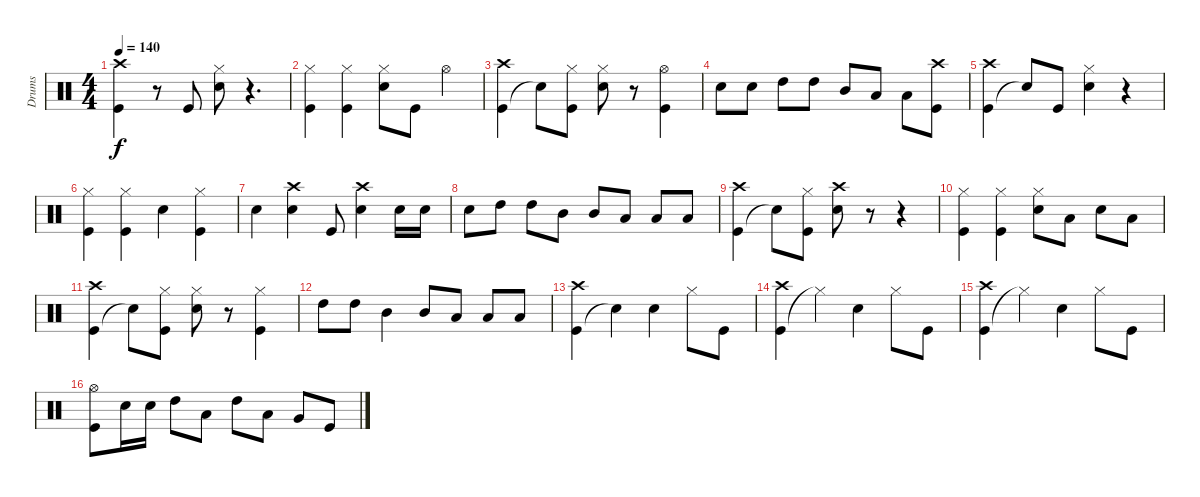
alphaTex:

\track ("Drums" "Drums") {instrument percussion}
\staff {score}
\articulation defaults
\ts (4 4)
\tempo 140
\clef neutral
\ks c
("Kick (hit)" "Crash high (hit)").4{dy f} r.8 "Kick (hit)".8 ("Snare (hit) 2" "Hi-Hat (closed)").8 r.4{d} |
("Kick (hit)" "Hi-Hat (closed)").4 ("Kick (hit)" "Hi-Hat (closed)").4 ("Snare (hit) 2" "Hi-Hat (closed)").8 "Kick (hit)".8 "Hi-Hat (open)".4 |
("Kick (hit)" "Crash high (hit)").4 "Snare (hit)"{t}.8 ("Kick (hit)" "Hi-Hat (closed)").8 ("Snare (hit) 2" "Hi-Hat (closed)").8 r.8 ("Kick (hit)" "Hi-Hat (open)").4 |
"Snare (hit) 2".8 "Snare (hit) 2".8 "High Tom (hit)".8 "High Tom (hit)".8 "Mid Tom (hit)".8 "Low Tom (hit)".8 "Low Floor Tom (hit)".8 ("Kick (hit)" "Crash high (hit)").8 |
("Kick (hit)" "Crash high (hit)").4 "Snare (hit)"{t}.8 "Kick (hit)".8 ("Snare (hit) 2" "Hi-Hat (closed)").4 r.4 |
("Kick (hit)" "Hi-Hat (closed)").4 ("Kick (hit)" "Hi-Hat (closed)").4 "Snare (hit) 2".4 ("Kick (hit)" "Hi-Hat (closed)").4 |
"Snare (hit) 2".4 ("Snare (hit) 2" "Crash high (hit)").4 "Kick (hit)".8 ("Snare (hit) 2" "Crash high (hit)").4 "Snare (hit) 2".16 "Snare (hit) 2".16 |
"Snare (hit) 2".8 "High Tom (hit)".8 "High Tom (hit)".8 "Mid Tom (hit)".8 "Mid Tom (hit)".8 "Low Tom (hit)".8 "Low Tom (hit)".8 "Low Floor Tom (hit)".8 |
("Kick (hit)" "Crash high (hit)").4 "Snare (hit)"{t}.8 ("Kick (hit)" "Hi-Hat (closed)").8 ("Snare (hit) 2" "Crash high (hit)").8 r.8 r.4 |
("Kick (hit)" "Hi-Hat (closed)").4 ("Kick (hit)" "Hi-Hat (closed)").4 ("Snare (hit) 2" "Hi-Hat (closed)").8 "Low Floor Tom (hit)".8 "Snare (hit) 2".8 "Low Floor Tom (hit)".8 |
("Kick (hit)" "Crash high (hit)").4 "Snare (hit)"{t}.8 ("Kick (hit)" "Hi-Hat (closed)").8 ("Snare (hit) 2" "Hi-Hat (closed)").8 r.8 ("Kick (hit)" "Hi-Hat (closed)").4 |
"High Tom (hit)".8 "High Tom (hit)".8 "Mid Tom (hit)".4 "Mid Tom (hit)".8 "Low Tom (hit)".8 "Low Tom (hit)".8 "Low Floor Tom (hit)".8 |
("Kick (hit)" "Crash high (hit)").4 "Snare (hit) 2"{t}.4 "Snare (hit) 2".4 "Hi-Hat (closed)".8 "Kick (hit)".8 |
("Kick (hit)" "Crash high (hit)").4 "Hi-Hat (closed)"{t}.4 "Snare (hit) 2".4 "Hi-Hat (closed)".8 "Kick (hit)".8 |
("Kick (hit)" "Crash high (hit)").4 "Hi-Hat (closed)"{t}.4 "Snare (hit) 2".4 "Hi-Hat (closed)".8 "Kick (hit)".8 |
("Kick (hit)" "Hi-Hat (open)").8 "Snare (hit) 2".16 "Snare (hit) 2".16 "High Tom (hit)".8 "Low Tom (hit)".8 "High Tom (hit)".8 "Low Tom (hit)".8 "Very Low Tom (hit)".8 "Kick (hit)".8
